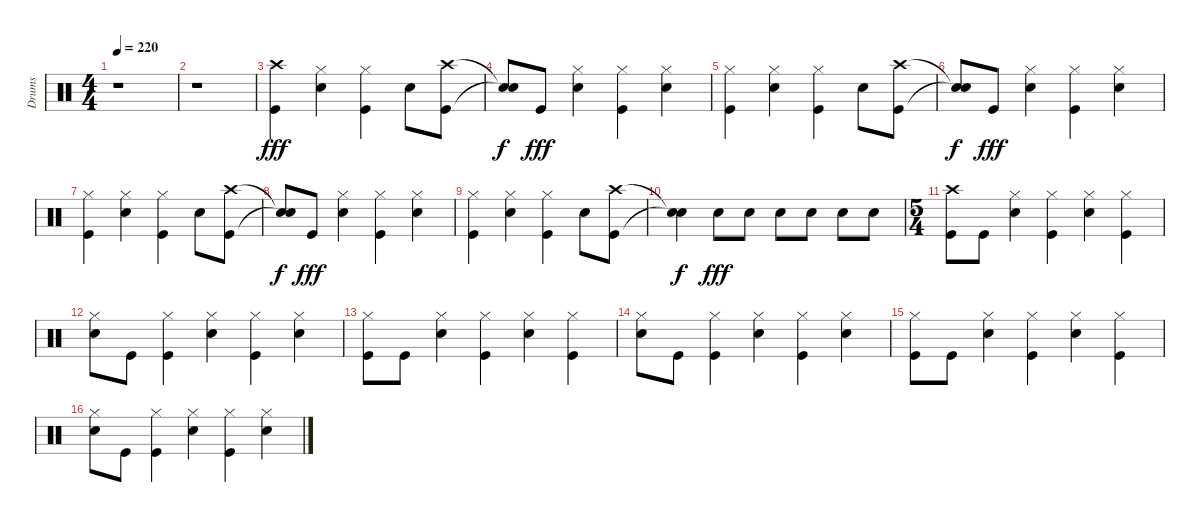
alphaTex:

\track ("Drums" "Drums") {instrument percussion}
\staff {score}
\articulation defaults
\ts (4 4)
\tempo 220
\clef neutral
\ks c
r.1{dy fff} |
r.1 |
("Crash high (hit)" "Kick (hit)").4 ("Hi-Hat (closed)" "Snare (hit) 2").4 ("Hi-Hat (closed)" "Kick (hit)").4 "Snare (hit) 2".8 ("Crash high (hit)" "Kick (hit)").8 |
("Snare (hit)"{t} "Snare (hit)"{t}).8{dy f} "Kick (hit)".8{dy fff} ("Hi-Hat (closed)" "Snare (hit) 2").4 ("Hi-Hat (closed)" "Kick (hit)").4 ("Hi-Hat (closed)" "Snare (hit) 2").4 |
("Hi-Hat (closed)" "Kick (hit)").4 ("Hi-Hat (closed)" "Snare (hit) 2").4 ("Hi-Hat (closed)" "Kick (hit)").4 "Snare (hit) 2".8 ("Crash high (hit)" "Kick (hit)").8 |
("Snare (hit)"{t} "Snare (hit)"{t}).8{dy f} "Kick (hit)".8{dy fff} ("Hi-Hat (closed)" "Snare (hit) 2").4 ("Hi-Hat (closed)" "Kick (hit)").4 ("Hi-Hat (closed)" "Snare (hit) 2").4 |
("Hi-Hat (closed)" "Kick (hit)").4 ("Hi-Hat (closed)" "Snare (hit) 2").4 ("Hi-Hat (closed)" "Kick (hit)").4 "Snare (hit) 2".8 ("Crash high (hit)" "Kick (hit)").8 |
("Snare (hit)"{t} "Snare (hit)"{t}).8{dy f} "Kick (hit)".8{dy fff} ("Hi-Hat (closed)" "Snare (hit) 2").4 ("Hi-Hat (closed)" "Kick (hit)").4 ("Hi-Hat (closed)" "Snare (hit) 2").4 |
("Hi-Hat (closed)" "Kick (hit)").4 ("Hi-Hat (closed)" "Snare (hit) 2").4 ("Hi-Hat (closed)" "Kick (hit)").4 "Snare (hit) 2".8 ("Crash high (hit)" "Kick (hit)").8 |
("Snare (hit)"{t} "Snare (hit)"{t}).4{dy f} "Snare (hit) 2".8{dy fff} "Snare (hit) 2".8 "Snare (hit) 2".8 "Snare (hit) 2".8 "Snare (hit) 2".8 "Snare (hit) 2".8 |
\ts (5 4)
("Crash high (hit)" "Kick (hit)").8 "Kick (hit)".8 ("Hi-Hat (closed)" "Snare (hit) 2").4 ("Hi-Hat (closed)" "Kick (hit)").4 ("Hi-Hat (closed)" "Snare (hit) 2").4 ("Hi-Hat (closed)" "Kick (hit)").4 |
("Hi-Hat (closed)" "Snare (hit) 2").8 "Kick (hit)".8 ("Hi-Hat (closed)" "Kick (hit)").4 ("Hi-Hat (closed)" "Snare (hit) 2").4 ("Hi-Hat (closed)" "Kick (hit)").4 ("Hi-Hat (closed)" "Snare (hit) 2").4 |
("Hi-Hat (closed)" "Kick (hit)").8 "Kick (hit)".8 ("Hi-Hat (closed)" "Snare (hit) 2").4 ("Hi-Hat (closed)" "Kick (hit)").4 ("Hi-Hat (closed)" "Snare (hit) 2").4 ("Hi-Hat (closed)" "Kick (hit)").4 |
("Hi-Hat (closed)" "Snare (hit) 2").8 "Kick (hit)".8 ("Hi-Hat (closed)" "Kick (hit)").4 ("Hi-Hat (closed)" "Snare (hit) 2").4 ("Hi-Hat (closed)" "Kick (hit)").4 ("Hi-Hat (closed)" "Snare (hit) 2").4 |
("Hi-Hat (closed)" "Kick (hit)").8 "Kick (hit)".8 ("Hi-Hat (closed)" "Snare (hit) 2").4 ("Hi-Hat (closed)" "Kick (hit)").4 ("Hi-Hat (closed)" "Snare (hit) 2").4 ("Hi-Hat (closed)" "Kick (hit)").4 |
("Hi-Hat (closed)" "Snare (hit) 2").8 "Kick (hit)".8 ("Hi-Hat (closed)" "Kick (hit)").4 ("Hi-Hat (closed)" "Snare (hit) 2").4 ("Hi-Hat (closed)" "Kick (hit)").4 ("Hi-Hat (closed)" "Snare (hit) 2").4
